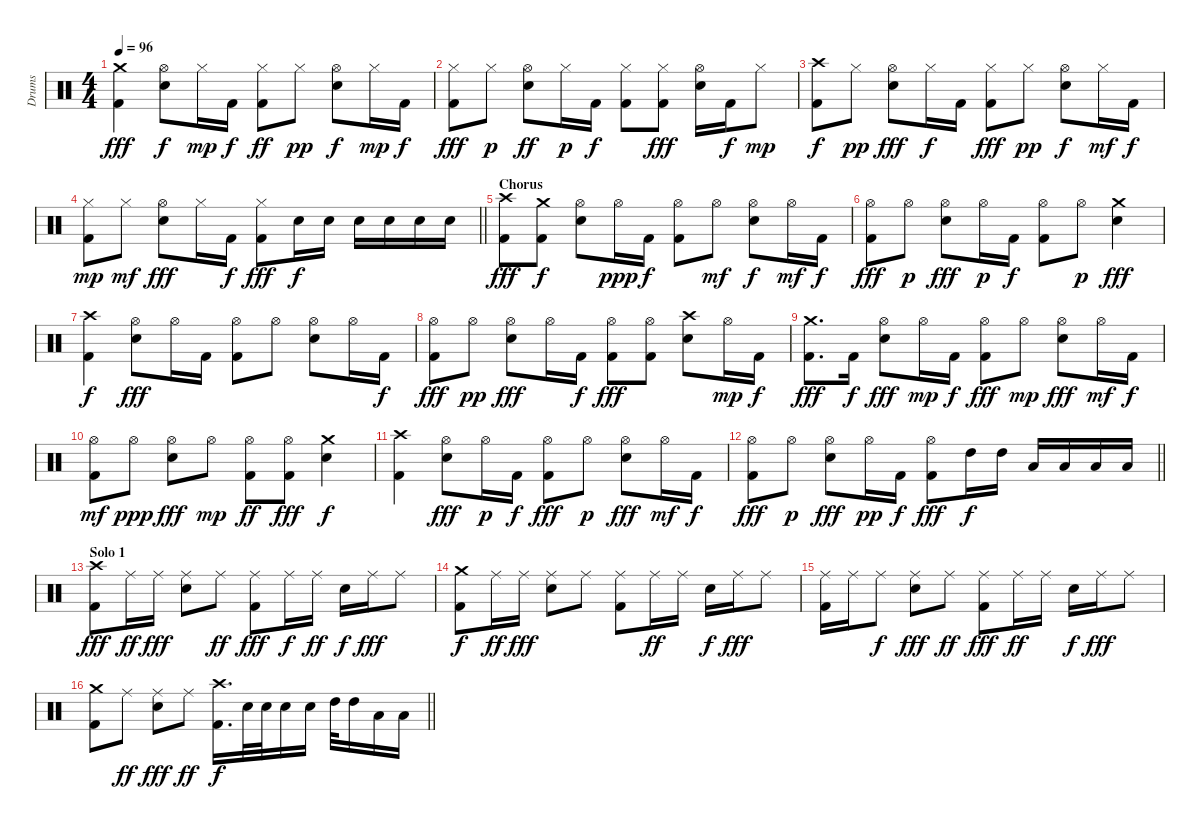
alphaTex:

\track ("Drums" "Drums") {instrument percussion}
\staff {score}
\articulation defaults
\ts (4 4)
\tempo 96
\clef neutral
\ks c
("Crash medium (hit)" "Kick (hit) 2").4{dy fff} ("Hi-Hat (open)" "Snare (hit) 2").8{dy f} "Hi-Hat (closed)".16{dy mp} "Kick (hit) 2".16{dy f} ("Hi-Hat (closed)" "Kick (hit) 2").8{dy ff} "Hi-Hat (closed)".8{dy pp} ("Hi-Hat (open)" "Snare (hit) 2").8{dy f} "Hi-Hat (closed)".16{dy mp} "Kick (hit) 2".16{dy f} |
("Hi-Hat (closed)" "Kick (hit) 2").8{dy fff} "Hi-Hat (closed)".8{dy p} ("Hi-Hat (open)" "Snare (hit) 2").8{dy ff} "Hi-Hat (closed)".16{dy p} "Kick (hit) 2".16{dy f} ("Hi-Hat (closed)" "Kick (hit) 2").8 ("Hi-Hat (closed)" "Kick (hit) 2").8{dy fff} ("Hi-Hat (open)" "Snare (hit) 2").16 "Kick (hit) 2".16{dy f} "Hi-Hat (closed)".8{dy mp} |
("Crash high (hit)" "Kick (hit) 2").8{dy f} "Hi-Hat (closed)".8{dy pp} ("Hi-Hat (open)" "Snare (hit) 2").8{dy fff} "Hi-Hat (closed)".16{dy f} "Kick (hit) 2".16 ("Hi-Hat (closed)" "Kick (hit) 2").8{dy fff} "Hi-Hat (closed)".8{dy pp} ("Hi-Hat (open)" "Snare (hit) 2").8{dy f} "Hi-Hat (closed)".16{dy mf} "Kick (hit) 2".16{dy f} |
\barLineRight lightlight
("Hi-Hat (closed)" "Kick (hit) 2").8{dy mp} "Hi-Hat (closed)".8{dy mf} ("Hi-Hat (open)" "Snare (hit) 2").8{dy fff} "Hi-Hat (closed)".16 "Kick (hit) 2".16{dy f} ("Hi-Hat (closed)" "Kick (hit) 2").8{dy fff} "Snare (hit) 2".16{dy f} "Snare (hit) 2".16 "Snare (hit) 2".16 "Snare (hit) 2".16 "Snare (hit) 2".16 "Snare (hit) 2".16 |
\section ("" "Chorus")
("Crash high (hit)" "Kick (hit) 2").8{dy fff} ("Crash medium (hit)" "Kick (hit) 2").8{dy f} ("Hi-Hat (open)" "Snare (hit) 2").8 "Hi-Hat (open)".16{dy ppp} "Kick (hit) 2".16{dy f} ("Hi-Hat (open)" "Kick (hit) 2").8 "Hi-Hat (open)".8{dy mf} ("Hi-Hat (open)" "Snare (hit) 2").8{dy f} "Hi-Hat (open)".16{dy mf} "Kick (hit) 2".16{dy f} |
("Hi-Hat (open)" "Kick (hit) 2").8{dy fff} "Hi-Hat (open)".8{dy p} ("Hi-Hat (open)" "Snare (hit) 2").8{dy fff} "Hi-Hat (open)".16{dy p} "Kick (hit) 2".16{dy f} ("Hi-Hat (open)" "Kick (hit) 2").8 "Hi-Hat (open)".8{dy p} ("Crash medium (hit)" "Snare (hit) 2").4{dy fff} |
("Crash high (hit)" "Kick (hit) 2").4{dy f} ("Hi-Hat (open)" "Snare (hit) 2").8{dy fff} "Hi-Hat (open)".16 "Kick (hit) 2".16 ("Hi-Hat (open)" "Kick (hit) 2").8 "Hi-Hat (open)".8 ("Hi-Hat (open)" "Snare (hit) 2").8 "Hi-Hat (open)".16 "Kick (hit) 2".16{dy f} |
("Hi-Hat (open)" "Kick (hit) 2").8{dy fff} "Hi-Hat (open)".8{dy pp} ("Hi-Hat (open)" "Snare (hit) 2").8{dy fff} "Hi-Hat (open)".16 "Kick (hit) 2".16{dy f} ("Hi-Hat (open)" "Kick (hit) 2").8{dy fff} ("Hi-Hat (open)" "Kick (hit) 2").8 ("Crash high (hit)" "Snare (hit) 2").8 "Hi-Hat (open)".16{dy mp} "Kick (hit) 2".16{dy f} |
("Crash medium (hit)" "Kick (hit) 2").8{d dy fff} "Kick (hit) 2".16{dy f} ("Hi-Hat (open)" "Snare (hit) 2").8{dy fff} "Hi-Hat (open)".16{dy mp} "Kick (hit) 2".16{dy f} ("Hi-Hat (open)" "Kick (hit) 2").8{dy fff} "Hi-Hat (open)".8{dy mp} ("Hi-Hat (open)" "Snare (hit) 2").8{dy fff} "Hi-Hat (open)".16{dy mf} "Kick (hit) 2".16{dy f} |
("Hi-Hat (open)" "Kick (hit) 2").8{dy mf} "Hi-Hat (open)".8{dy ppp} ("Hi-Hat (open)" "Snare (hit) 2").8{dy fff} "Hi-Hat (open)".8{dy mp} ("Hi-Hat (open)" "Kick (hit) 2").8{dy ff} ("Hi-Hat (open)" "Kick (hit) 2").8{dy fff} ("Crash medium (hit)" "Snare (hit) 2").4{dy f} |
("Crash high (hit)" "Kick (hit) 2").4 ("Hi-Hat (open)" "Snare (hit) 2").8{dy fff} "Hi-Hat (open)".16{dy p} "Kick (hit) 2".16{dy f} ("Hi-Hat (open)" "Kick (hit) 2").8{dy fff} "Hi-Hat (open)".8{dy p} ("Hi-Hat (open)" "Snare (hit) 2").8{dy fff} "Hi-Hat (open)".16{dy mf} "Kick (hit) 2".16{dy f} |
\barLineRight lightlight
("Hi-Hat (open)" "Kick (hit) 2").8{dy fff} "Hi-Hat (open)".8{dy p} ("Hi-Hat (open)" "Snare (hit) 2").8{dy fff} "Hi-Hat (open)".16{dy pp} "Kick (hit) 2".16{dy f} ("Hi-Hat (open)" "Kick (hit) 2").8{dy fff} "High Tom (hit)".16{dy f} "High Tom (hit)".16 "Low Tom (hit)".16 "Low Tom (hit)".16 "Low Floor Tom (hit)".16 "Low Floor Tom (hit)".16 |
\section ("" "Solo 1")
("Crash high (hit)" "Kick (hit) 2").8{dy fff} "Ride (middle)".16{dy ff} "Ride (middle)".16{dy fff} ("Ride (middle)" "Snare (hit) 2").8 "Ride (middle)".8{dy ff} ("Ride (middle)" "Kick (hit) 2").8{dy fff} "Ride (middle)".16{dy f} "Ride (middle)".16{dy ff} "Snare (hit) 2".16{dy f} "Ride (middle)".16{dy fff} "Ride (middle)".8 |
("Crash medium (hit)" "Kick (hit) 2").8{dy f} "Ride (middle)".16{dy ff} "Ride (middle)".16{dy fff} ("Ride (middle)" "Snare (hit) 2").8 "Ride (middle)".8 ("Ride (middle)" "Kick (hit) 2").8 "Ride (middle)".16{dy ff} "Ride (middle)".16 "Snare (hit) 2".16{dy f} "Ride (middle)".16{dy fff} "Ride (middle)".8 |
("Ride (middle)" "Kick (hit) 2").16 "Ride (middle)".16 "Ride (middle)".8{dy f} ("Ride (middle)" "Snare (hit) 2").8{dy fff} "Ride (middle)".8{dy ff} ("Ride (middle)" "Kick (hit) 2").8{dy fff} "Ride (middle)".16{dy ff} "Ride (middle)".16 "Snare (hit) 2".16{dy f} "Ride (middle)".16{dy fff} "Ride (middle)".8 |
\barLineRight lightlight
("Crash medium (hit)" "Kick (hit) 2").8 "Ride (middle)".8{dy ff} ("Ride (middle)" "Snare (hit) 2").8{dy fff} "Ride (middle)".8{dy ff} ("Crash high (hit)" "Kick (hit) 2").16{d dy f} "Snare (hit) 2".32 "Snare (hit) 2".32 "Snare (hit) 2".16 "Snare (hit) 2".16 "High Tom (hit)".32 "High Tom (hit)".16 "Low Tom (hit)".16 "Low Tom (hit)".16
